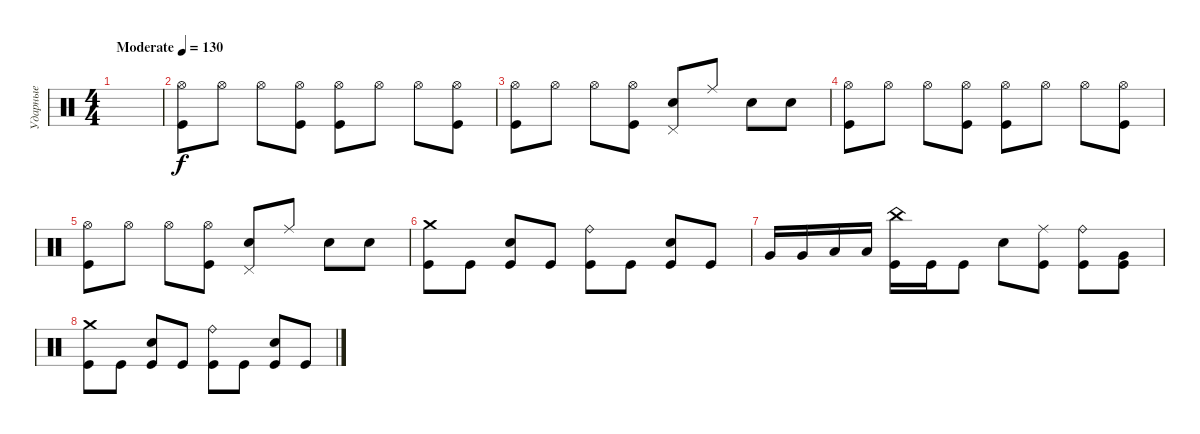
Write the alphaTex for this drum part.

\track ("Ударные" "Ударные") {instrument percussion}
\staff {score}
\articulation defaults
\ts (4 4)
\tempo (130 "Moderate")
\clef neutral
\ks c
|
("Hi-Hat (open)" "Kick (hit)").8 "Hi-Hat (open)".8 "Hi-Hat (open)".8 ("Hi-Hat (open)" "Kick (hit)").8 ("Hi-Hat (open)" "Kick (hit)").8 "Hi-Hat (open)".8 "Hi-Hat (open)".8 ("Hi-Hat (open)" "Kick (hit)").8 |
("Hi-Hat (open)" "Kick (hit)").8 "Hi-Hat (open)".8 "Hi-Hat (open)".8 ("Hi-Hat (open)" "Kick (hit)").8 ("Pedal Hi-Hat (hit)" "Electric Snare (hit)").8 "Ride (middle)".8 "Electric Snare (hit)".8 "Electric Snare (hit)".8 |
("Hi-Hat (open)" "Kick (hit)").8 "Hi-Hat (open)".8 "Hi-Hat (open)".8 ("Hi-Hat (open)" "Kick (hit)").8 ("Hi-Hat (open)" "Kick (hit)").8 "Hi-Hat (open)".8 "Hi-Hat (open)".8 ("Hi-Hat (open)" "Kick (hit)").8 |
("Hi-Hat (open)" "Kick (hit)").8 "Hi-Hat (open)".8 "Hi-Hat (open)".8 ("Hi-Hat (open)" "Kick (hit)").8 ("Pedal Hi-Hat (hit)" "Electric Snare (hit)").8 "Ride (middle)".8 "Electric Snare (hit)".8 "Electric Snare (hit)".8 |
("Crash medium (hit)" "Kick (hit)").8 "Kick (hit)".8 ("Electric Snare (hit)" "Kick (hit)").8 "Kick (hit)".8 ("Ride (bell)" "Kick (hit)").8 "Kick (hit)".8 ("Electric Snare (hit)" "Kick (hit)").8 "Kick (hit)".8 |
"Very Low Tom (hit)".16 "Very Low Tom (hit)".16 "Low Floor Tom (hit)".16 "Low Floor Tom (hit)".16 ("China (hit)" "Kick (hit)").16 "Kick (hit)".16 "Kick (hit)".8 "Electric Snare (hit)".8 ("Ride (middle)" "Kick (hit)").8 ("Ride (bell)" "Kick (hit)").8 ("Very Low Tom (hit)" "Kick (hit)").8 |
("Crash medium (hit)" "Kick (hit)").8 "Kick (hit)".8 ("Electric Snare (hit)" "Kick (hit)").8 "Kick (hit)".8 ("Ride (bell)" "Kick (hit)").8 "Kick (hit)".8 ("Electric Snare (hit)" "Kick (hit)").8 "Kick (hit)".8
